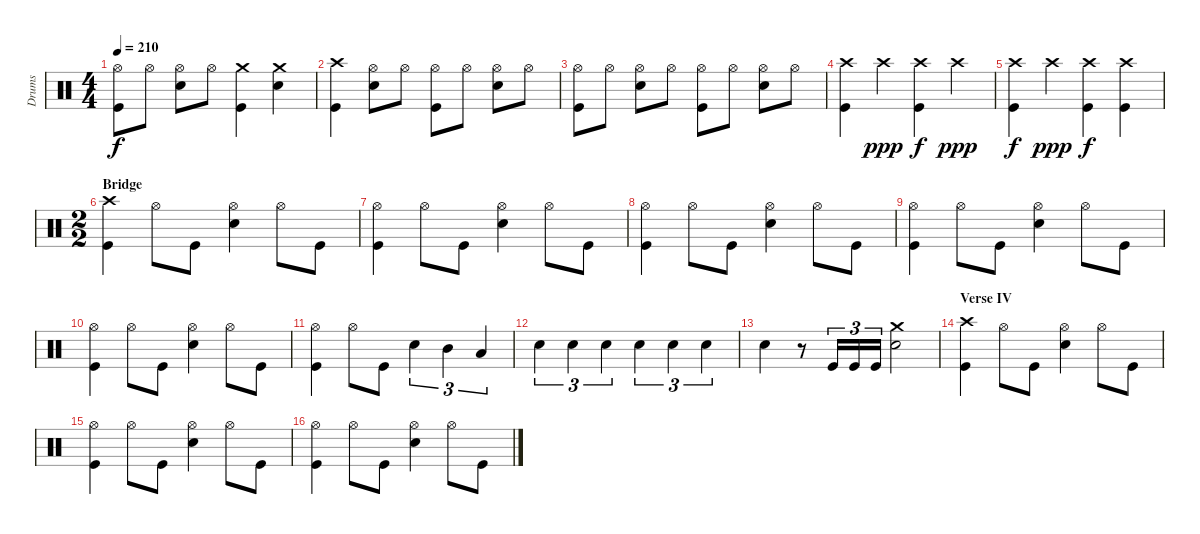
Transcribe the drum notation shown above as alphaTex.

\track ("Drums" "Drums") {instrument percussion}
\staff {score}
\articulation defaults
\ts (4 4)
\tempo 210
\clef neutral
\ks c
("Hi-Hat (open)" "Kick (hit)").8{dy f} "Hi-Hat (open)".8 ("Hi-Hat (open)" "Electric Snare (hit)").8 "Hi-Hat (open)".8 ("Crash medium (hit)" "Kick (hit)").4 ("Crash medium (hit)" "Electric Snare (hit)").4 |
("Crash high (hit)" "Kick (hit)").4 ("Hi-Hat (open)" "Electric Snare (hit)").8 "Hi-Hat (open)".8 ("Hi-Hat (open)" "Kick (hit)").8 "Hi-Hat (open)".8 ("Hi-Hat (open)" "Electric Snare (hit)").8 "Hi-Hat (open)".8 |
("Hi-Hat (open)" "Kick (hit)").8 "Hi-Hat (open)".8 ("Hi-Hat (open)" "Electric Snare (hit)").8 "Hi-Hat (open)".8 ("Hi-Hat (open)" "Kick (hit)").8 "Hi-Hat (open)".8 ("Hi-Hat (open)" "Electric Snare (hit)").8 "Hi-Hat (open)".8 |
("Crash high (hit)" "Kick (hit)").4 "Crash high (hit)".4{dy ppp} ("Crash high (hit)" "Kick (hit)").4{dy f} "Crash high (hit)".4{dy ppp} |
("Crash high (hit)" "Kick (hit)").4{dy f} "Crash high (hit)".4{dy ppp} ("Crash high (hit)" "Kick (hit)").4{dy f} ("Crash high (hit)" "Kick (hit)").4 |
\ts (2 2)
\section ("" "Bridge")
("Crash high (hit)" "Kick (hit)").4 "Hi-Hat (open)".8 "Kick (hit)".8 ("Hi-Hat (open)" "Electric Snare (hit)").4 "Hi-Hat (open)".8 "Kick (hit)".8 |
("Hi-Hat (open)" "Kick (hit)").4 "Hi-Hat (open)".8 "Kick (hit)".8 ("Hi-Hat (open)" "Electric Snare (hit)").4 "Hi-Hat (open)".8 "Kick (hit)".8 |
("Hi-Hat (open)" "Kick (hit)").4 "Hi-Hat (open)".8 "Kick (hit)".8 ("Hi-Hat (open)" "Electric Snare (hit)").4 "Hi-Hat (open)".8 "Kick (hit)".8 |
("Hi-Hat (open)" "Kick (hit)").4 "Hi-Hat (open)".8 "Kick (hit)".8 ("Hi-Hat (open)" "Electric Snare (hit)").4 "Hi-Hat (open)".8 "Kick (hit)".8 |
("Hi-Hat (open)" "Kick (hit)").4 "Hi-Hat (open)".8 "Kick (hit)".8 ("Hi-Hat (open)" "Electric Snare (hit)").4 "Hi-Hat (open)".8 "Kick (hit)".8 |
("Hi-Hat (open)" "Kick (hit)").4 "Hi-Hat (open)".8 "Kick (hit)".8 "Electric Snare (hit)".4{tu (3 2)} "Mid Tom (hit)".4{tu (3 2)} "Low Tom (hit)".4{tu (3 2)} |
"Electric Snare (hit)".4{tu (3 2)} "Electric Snare (hit)".4{tu (3 2)} "Electric Snare (hit)".4{tu (3 2)} "Electric Snare (hit)".4{tu (3 2)} "Electric Snare (hit)".4{tu (3 2)} "Electric Snare (hit)".4{tu (3 2)} |
"Electric Snare (hit)".4 r.8 "Kick (hit)".16{tu (3 2)} "Kick (hit)".16{tu (3 2)} "Kick (hit)".16{tu (3 2)} ("Crash medium (hit)" "Electric Snare (hit)").2 |
\section ("" "Verse IV")
("Crash high (hit)" "Kick (hit)").4 "Hi-Hat (open)".8 "Kick (hit)".8 ("Hi-Hat (open)" "Electric Snare (hit)").4 "Hi-Hat (open)".8 "Kick (hit)".8 |
("Hi-Hat (open)" "Kick (hit)").4 "Hi-Hat (open)".8 "Kick (hit)".8 ("Hi-Hat (open)" "Electric Snare (hit)").4 "Hi-Hat (open)".8 "Kick (hit)".8 |
("Hi-Hat (open)" "Kick (hit)").4 "Hi-Hat (open)".8 "Kick (hit)".8 ("Hi-Hat (open)" "Electric Snare (hit)").4 "Hi-Hat (open)".8 "Kick (hit)".8
